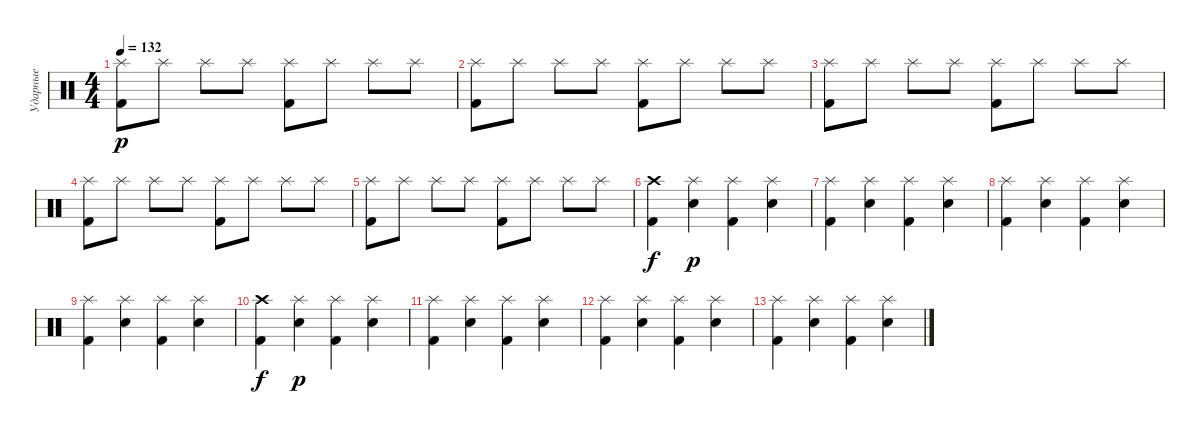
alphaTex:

\track ("Ударные" "Ударные") {instrument percussion}
\staff {score}
\articulation defaults
\ts (4 4)
\tempo 132
\clef neutral
\ks c
("Splash (hit)" "Kick (hit) 2").8{dy p} "Splash (hit)".8 "Splash (hit)".8 "Splash (hit)".8 ("Splash (hit)" "Kick (hit) 2").8 "Splash (hit)".8 "Splash (hit)".8 "Splash (hit)".8 |
("Splash (hit)" "Kick (hit) 2").8 "Splash (hit)".8 "Splash (hit)".8 "Splash (hit)".8 ("Splash (hit)" "Kick (hit) 2").8 "Splash (hit)".8 "Splash (hit)".8 "Splash (hit)".8 |
("Splash (hit)" "Kick (hit) 2").8 "Splash (hit)".8 "Splash (hit)".8 "Splash (hit)".8 ("Splash (hit)" "Kick (hit) 2").8 "Splash (hit)".8 "Splash (hit)".8 "Splash (hit)".8 |
("Splash (hit)" "Kick (hit) 2").8 "Splash (hit)".8 "Splash (hit)".8 "Splash (hit)".8 ("Splash (hit)" "Kick (hit) 2").8 "Splash (hit)".8 "Splash (hit)".8 "Splash (hit)".8 |
("Splash (hit)" "Kick (hit) 2").8 "Splash (hit)".8 "Splash (hit)".8 "Splash (hit)".8 ("Splash (hit)" "Kick (hit) 2").8 "Splash (hit)".8 "Splash (hit)".8 "Splash (hit)".8 |
("Crash high (hit)" "Kick (hit) 2").4{dy f} ("Splash (hit)" "Electric Snare (hit)").4{dy p} ("Splash (hit)" "Kick (hit) 2").4 ("Splash (hit)" "Electric Snare (hit)").4 |
("Splash (hit)" "Kick (hit) 2").4 ("Splash (hit)" "Electric Snare (hit)").4 ("Splash (hit)" "Kick (hit) 2").4 ("Splash (hit)" "Electric Snare (hit)").4 |
("Splash (hit)" "Kick (hit) 2").4 ("Splash (hit)" "Electric Snare (hit)").4 ("Splash (hit)" "Kick (hit) 2").4 ("Splash (hit)" "Electric Snare (hit)").4 |
("Splash (hit)" "Kick (hit) 2").4 ("Splash (hit)" "Electric Snare (hit)").4 ("Splash (hit)" "Kick (hit) 2").4 ("Splash (hit)" "Electric Snare (hit)").4 |
("Crash high (hit)" "Kick (hit) 2").4{dy f} ("Splash (hit)" "Electric Snare (hit)").4{dy p} ("Splash (hit)" "Kick (hit) 2").4 ("Splash (hit)" "Electric Snare (hit)").4 |
("Splash (hit)" "Kick (hit) 2").4 ("Splash (hit)" "Electric Snare (hit)").4 ("Splash (hit)" "Kick (hit) 2").4 ("Splash (hit)" "Electric Snare (hit)").4 |
("Splash (hit)" "Kick (hit) 2").4 ("Splash (hit)" "Electric Snare (hit)").4 ("Splash (hit)" "Kick (hit) 2").4 ("Splash (hit)" "Electric Snare (hit)").4 |
("Splash (hit)" "Kick (hit) 2").4 ("Splash (hit)" "Electric Snare (hit)").4 ("Splash (hit)" "Kick (hit) 2").4 ("Splash (hit)" "Electric Snare (hit)").4
